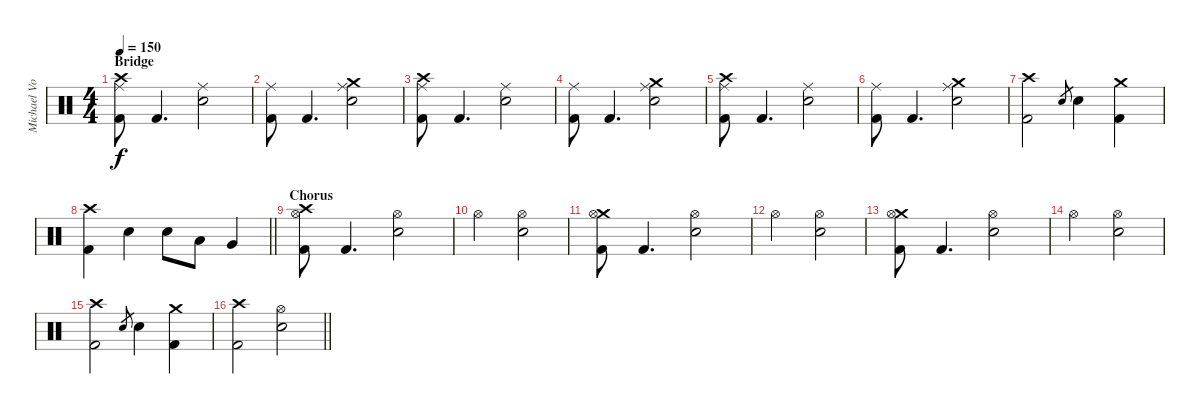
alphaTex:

\track ("Michael Von Knorring" "Michael Vo") {instrument percussion}
\staff {score}
\articulation defaults
\ts (4 4)
\section ("" "Bridge")
\tempo 150
\clef neutral
\ks c
("Crash high (hit)" "Ride (middle)" "Kick (hit) 2").8{dy f} "Kick (hit) 2".4{d} ("Ride (middle)" "Snare (hit) 2").2 |
("Ride (middle)" "Kick (hit) 2").8 "Kick (hit) 2".4{d} ("Crash medium (hit)" "Ride (middle)" "Snare (hit) 2").2 |
("Crash high (hit)" "Ride (middle)" "Kick (hit) 2").8 "Kick (hit) 2".4{d} ("Ride (middle)" "Snare (hit) 2").2 |
("Ride (middle)" "Kick (hit) 2").8 "Kick (hit) 2".4{d} ("Crash medium (hit)" "Ride (middle)" "Snare (hit) 2").2 |
("Crash high (hit)" "Ride (middle)" "Kick (hit) 2").8 "Kick (hit) 2".4{d} ("Ride (middle)" "Snare (hit) 2").2 |
("Ride (middle)" "Kick (hit) 2").8 "Kick (hit) 2".4{d} ("Crash medium (hit)" "Ride (middle)" "Snare (hit) 2").2 |
("Crash high (hit)" "Kick (hit) 2").2 "Snare (hit) 2".8{gr} "Snare (hit) 2".4 ("Crash medium (hit)" "Kick (hit) 2").4 |
\barLineRight lightlight
("Crash high (hit)" "Kick (hit) 2").4 "Snare (hit) 2".4 "Snare (hit) 2".8 "Low Tom (hit)".8 "Very Low Tom (hit)".4 |
\section ("" "Chorus")
("Crash high (hit)" "Hi-Hat (open)" "Kick (hit) 2").8 "Kick (hit) 2".4{d} ("Hi-Hat (open)" "Snare (hit) 2").2 |
"Hi-Hat (open)".2 ("Hi-Hat (open)" "Snare (hit) 2").2 |
("Crash medium (hit)" "Hi-Hat (open)" "Kick (hit) 2").8 "Kick (hit) 2".4{d} ("Hi-Hat (open)" "Snare (hit) 2").2 |
"Hi-Hat (open)".2 ("Hi-Hat (open)" "Snare (hit) 2").2 |
("Crash medium (hit)" "Hi-Hat (open)" "Kick (hit) 2").8 "Kick (hit) 2".4{d} ("Hi-Hat (open)" "Snare (hit) 2").2 |
"Hi-Hat (open)".2 ("Hi-Hat (open)" "Snare (hit) 2").2 |
("Crash high (hit)" "Kick (hit) 2").2 "Snare (hit) 2".8{gr} "Snare (hit) 2".4 ("Crash medium (hit)" "Kick (hit) 2").4 |
\barLineRight lightlight
("Crash high (hit)" "Kick (hit) 2").2 ("Hi-Hat (open)" "Snare (hit) 2").2
